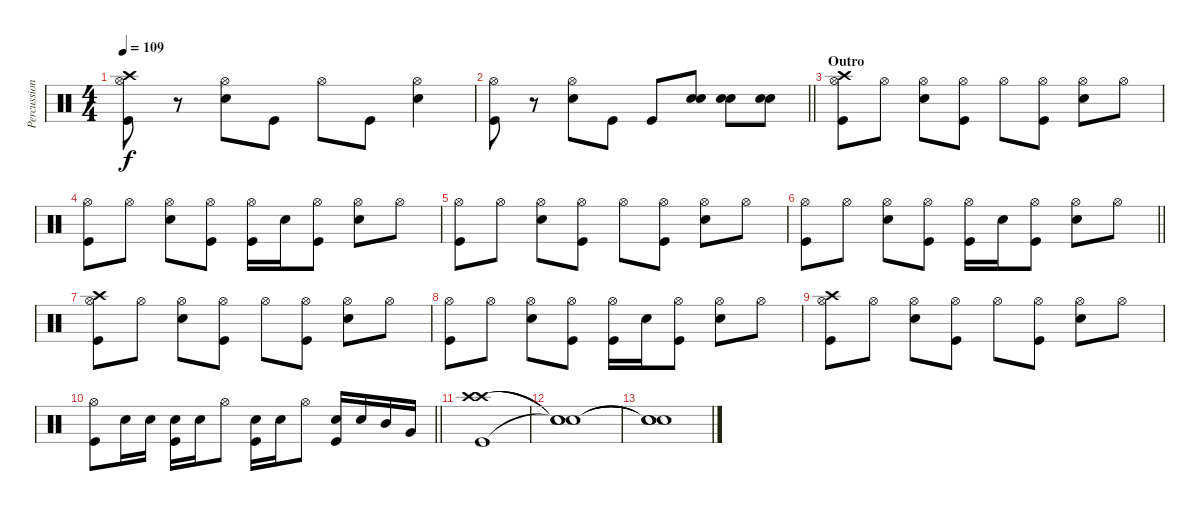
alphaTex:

\track ("Percussioni" "Percussion") {instrument percussion}
\staff {score}
\articulation defaults
\ts (4 4)
\tempo 109
\clef neutral
\ks c
("Crash high (hit)" "Kick (hit)" "Hi-Hat (open)").8{dy f} r.8 ("Snare (hit) 2" "Hi-Hat (open)").8 "Kick (hit)".8 "Hi-Hat (open)".8 "Kick (hit)".8 ("Snare (hit) 2" "Hi-Hat (open)").4 |
\barLineRight lightlight
("Kick (hit)" "Hi-Hat (open)").8 r.8 ("Snare (hit) 2" "Hi-Hat (open)").8 "Kick (hit)".8 "Kick (hit)".8 ("Snare (hit) 2" "Snare (hit) 2").8 ("Snare (hit) 2" "Snare (hit) 2").8 ("Snare (hit) 2" "Snare (hit) 2").8 |
\section ("" "Outro")
("Crash high (hit)" "Kick (hit)" "Hi-Hat (open)").8 "Hi-Hat (open)".8 ("Snare (hit) 2" "Hi-Hat (open)").8 ("Kick (hit)" "Hi-Hat (open)").8 "Hi-Hat (open)".8 ("Kick (hit)" "Hi-Hat (open)").8 ("Snare (hit) 2" "Hi-Hat (open)").8 "Hi-Hat (open)".8 |
("Kick (hit)" "Hi-Hat (open)").8 "Hi-Hat (open)".8 ("Snare (hit) 2" "Hi-Hat (open)").8 ("Kick (hit)" "Hi-Hat (open)").8 ("Kick (hit)" "Hi-Hat (open)").16 "Snare (hit) 2".16 ("Kick (hit)" "Hi-Hat (open)").8 ("Snare (hit) 2" "Hi-Hat (open)").8 "Hi-Hat (open)".8 |
("Kick (hit)" "Hi-Hat (open)").8 "Hi-Hat (open)".8 ("Snare (hit) 2" "Hi-Hat (open)").8 ("Kick (hit)" "Hi-Hat (open)").8 "Hi-Hat (open)".8 ("Kick (hit)" "Hi-Hat (open)").8 ("Snare (hit) 2" "Hi-Hat (open)").8 "Hi-Hat (open)".8 |
\barLineRight lightlight
("Kick (hit)" "Hi-Hat (open)").8 "Hi-Hat (open)".8 ("Snare (hit) 2" "Hi-Hat (open)").8 ("Kick (hit)" "Hi-Hat (open)").8 ("Kick (hit)" "Hi-Hat (open)").16 "Snare (hit) 2".16 ("Kick (hit)" "Hi-Hat (open)").8 ("Snare (hit) 2" "Hi-Hat (open)").8 "Hi-Hat (open)".8 |
("Crash high (hit)" "Kick (hit)" "Hi-Hat (open)").8 "Hi-Hat (open)".8 ("Snare (hit) 2" "Hi-Hat (open)").8 ("Kick (hit)" "Hi-Hat (open)").8 "Hi-Hat (open)".8 ("Kick (hit)" "Hi-Hat (open)").8 ("Snare (hit) 2" "Hi-Hat (open)").8 "Hi-Hat (open)".8 |
("Kick (hit)" "Hi-Hat (open)").8 "Hi-Hat (open)".8 ("Snare (hit) 2" "Hi-Hat (open)").8 ("Kick (hit)" "Hi-Hat (open)").8 ("Kick (hit)" "Hi-Hat (open)").16 "Snare (hit) 2".16 ("Kick (hit)" "Hi-Hat (open)").8 ("Snare (hit) 2" "Hi-Hat (open)").8 "Hi-Hat (open)".8 |
("Crash high (hit)" "Kick (hit)" "Hi-Hat (open)").8 "Hi-Hat (open)".8 ("Snare (hit) 2" "Hi-Hat (open)").8 ("Kick (hit)" "Hi-Hat (open)").8 "Hi-Hat (open)".8 ("Kick (hit)" "Hi-Hat (open)").8 ("Snare (hit) 2" "Hi-Hat (open)").8 "Hi-Hat (open)".8 |
\barLineRight lightlight
("Hi-Hat (open)" "Kick (hit)").8 "Snare (hit) 2".16 "Snare (hit) 2".16 ("Snare (hit) 2" "Kick (hit)").16 "Snare (hit) 2".16 "Hi-Hat (open)".8 ("Snare (hit) 2" "Kick (hit)").16 "Snare (hit) 2".16 "Hi-Hat (open)".8 ("Snare (hit) 2" "Kick (hit)").16 "Snare (hit) 2".16 "Mid Tom (hit)".16 "Very Low Tom (hit)".16 |
("Crash high (hit)" "Crash high (hit)" "Kick (hit)").1 |
("Snare (hit)"{t} "Snare (hit)"{t} "Snare (hit)"{t}).1 |
("Snare (hit)"{t} "Snare (hit)"{t} "Snare (hit)"{t}).1
